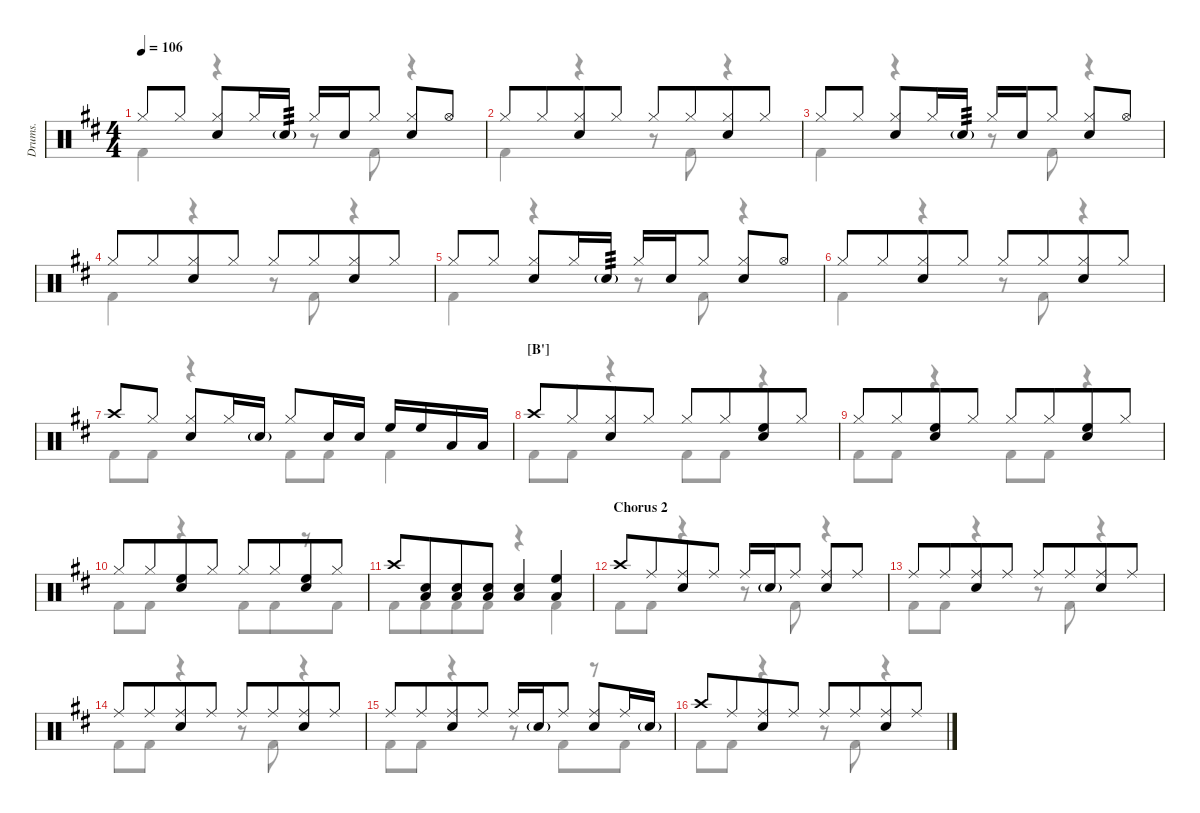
\defaultSystemsLayout 4
\hideDynamics
\track ("Drumkit" "Drums.") {defaultSystemsLayout 4 instrument percussion}
\staff {score}
\articulation defaults
\voice
\ts (4 4)
\tempo 106
\clef neutral
\ks d "Hi-Hat (closed)"{acc forcenatural}.8{dy mf} "Hi-Hat (closed)"{acc forcenatural}.8
("Hi-Hat (closed)"{acc forcenatural} "Snare (hit) 2"{acc forcenatural}).8 "Hi-Hat (closed)"{acc forcenatural}.16 "Snare (hit) 2"{g acc forcenatural}.16{tp 3} "Hi-Hat (closed)"{acc forcenatural}.16 "Snare (hit) 2"{acc forcenatural}.16 "Hi-Hat (closed)"{acc forcenatural}.8{beam split} ("Hi-Hat (closed)"{acc forcenatural} "Snare (hit) 2"{acc forcenatural}).8 "Hi-Hat (open)"{acc forcenatural}.8 |
"Hi-Hat (closed)"{acc forcenatural}.8 "Hi-Hat (closed)"{acc forcenatural}.8{beam merge} ("Hi-Hat (closed)"{acc forcenatural} "Snare (hit) 2"{acc forcenatural}).8 "Hi-Hat (closed)"{acc forcenatural}.8 "Hi-Hat (closed)"{acc forcenatural}.8 "Hi-Hat (closed)"{acc forcenatural}.8{beam merge} ("Hi-Hat (closed)"{acc forcenatural} "Snare (hit) 2"{acc forcenatural}).8 "Hi-Hat (closed)"{acc forcenatural}.8 |
"Hi-Hat (closed)"{acc forcenatural}.8 "Hi-Hat (closed)"{acc forcenatural}.8 ("Hi-Hat (closed)"{acc forcenatural} "Snare (hit) 2"{acc forcenatural}).8 "Hi-Hat (closed)"{acc forcenatural}.16 "Snare (hit) 2"{g acc forcenatural}.16{tp 3} "Hi-Hat (closed)"{acc forcenatural}.16 "Snare (hit) 2"{acc forcenatural}.16 "Hi-Hat (closed)"{acc forcenatural}.8{beam split} ("Hi-Hat (closed)"{acc forcenatural} "Snare (hit) 2"{acc forcenatural}).8 "Hi-Hat (open)"{acc forcenatural}.8 |
"Hi-Hat (closed)"{acc forcenatural}.8 "Hi-Hat (closed)"{acc forcenatural}.8{beam merge} ("Hi-Hat (closed)"{acc forcenatural} "Snare (hit) 2"{acc forcenatural}).8 "Hi-Hat (closed)"{acc forcenatural}.8 "Hi-Hat (closed)"{acc forcenatural}.8 "Hi-Hat (closed)"{acc forcenatural}.8{beam merge} ("Hi-Hat (closed)"{acc forcenatural} "Snare (hit) 2"{acc forcenatural}).8 "Hi-Hat (closed)"{acc forcenatural}.8 |
"Hi-Hat (closed)"{acc forcenatural}.8 "Hi-Hat (closed)"{acc forcenatural}.8 ("Hi-Hat (closed)"{acc forcenatural} "Snare (hit) 2"{acc forcenatural}).8 "Hi-Hat (closed)"{acc forcenatural}.16 "Snare (hit) 2"{g acc forcenatural}.16{tp 3} "Hi-Hat (closed)"{acc forcenatural}.16 "Snare (hit) 2"{acc forcenatural}.16 "Hi-Hat (closed)"{acc forcenatural}.8{beam split} ("Hi-Hat (closed)"{acc forcenatural} "Snare (hit) 2"{acc forcenatural}).8 "Hi-Hat (open)"{acc forcenatural}.8 |
"Hi-Hat (closed)"{acc forcenatural}.8 "Hi-Hat (closed)"{acc forcenatural}.8{beam merge} ("Hi-Hat (closed)"{acc forcenatural} "Snare (hit) 2"{acc forcenatural}).8 "Hi-Hat (closed)"{acc forcenatural}.8 "Hi-Hat (closed)"{acc forcenatural}.8 "Hi-Hat (closed)"{acc forcenatural}.8{beam merge} ("Hi-Hat (closed)"{acc forcenatural} "Snare (hit) 2"{acc forcenatural}).8 "Hi-Hat (closed)"{acc forcenatural}.8 |
"Crash high (hit)"{acc forcenatural}.8 "Hi-Hat (closed)"{acc forcenatural}.8 ("Hi-Hat (closed)"{acc forcenatural} "Snare (hit) 2"{acc forcenatural}).8 "Hi-Hat (closed)"{acc forcenatural}.16 "Snare (hit) 2"{g acc forcenatural}.16 "Hi-Hat (closed)"{acc forcenatural}.8 "Snare (hit) 2"{acc forcenatural}.16 "Snare (hit) 2"{acc forcenatural}.16 "High Floor Tom (hit)"{acc forcenatural}.16 "High Floor Tom (hit)"{acc forcenatural}.16 "Low Tom (hit)"{acc forcenatural}.16 "Low Tom (hit)"{acc forcenatural}.16 |
\section ("B'" "")
"Crash high (hit)"{acc forcenatural}.8 "Hi-Hat (closed)"{acc forcenatural}.8{beam merge} ("Hi-Hat (closed)"{acc forcenatural} "Snare (hit) 2"{acc forcenatural}).8 "Hi-Hat (closed)"{acc forcenatural}.8 "Hi-Hat (closed)"{acc forcenatural}.8 "Hi-Hat (closed)"{acc forcenatural}.8{beam merge} ("Snare (hit) 2"{acc forcenatural} "High Floor Tom (hit)"{acc forcenatural}).8 "Hi-Hat (closed)"{acc forcenatural}.8 |
"Hi-Hat (closed)"{acc forcenatural}.8 "Hi-Hat (closed)"{acc forcenatural}.8{beam merge} ("Snare (hit) 2"{acc forcenatural} "High Floor Tom (hit)"{acc forcenatural}).8 "Hi-Hat (closed)"{acc forcenatural}.8 "Hi-Hat (closed)"{acc forcenatural}.8 "Hi-Hat (closed)"{acc forcenatural}.8{beam merge} ("Snare (hit) 2"{acc forcenatural} "High Floor Tom (hit)"{acc forcenatural}).8 "Hi-Hat (closed)"{acc forcenatural}.8 |
"Hi-Hat (closed)"{acc forcenatural}.8 "Hi-Hat (closed)"{acc forcenatural}.8{beam merge} ("Snare (hit) 2"{acc forcenatural} "High Floor Tom (hit)"{acc forcenatural}).8 "Hi-Hat (closed)"{acc forcenatural}.8 "Hi-Hat (closed)"{acc forcenatural}.8 "Hi-Hat (closed)"{acc forcenatural}.8{beam merge} ("Snare (hit) 2"{acc forcenatural} "High Floor Tom (hit)"{acc forcenatural}).8 "Hi-Hat (closed)"{acc forcenatural}.8 |
"Crash high (hit)"{acc forcenatural}.8 ("Snare (hit) 2"{acc forcenatural} "Low Tom (hit)"{acc forcenatural}).8{beam merge} ("Snare (hit) 2"{acc forcenatural} "Low Tom (hit)"{acc forcenatural}).8{beam merge} ("Snare (hit) 2"{acc forcenatural} "Low Tom (hit)"{acc forcenatural}).8 ("Snare (hit) 2"{acc forcenatural} "Low Tom (hit)"{acc forcenatural}).4{beam merge} ("Low Tom (hit)"{acc forcenatural} "High Floor Tom (hit)"{acc forcenatural}).4 |
\section ("" "Chorus 2")
"Crash high (hit)"{acc forcenatural}.8{beam merge} "Ride (middle)"{acc forcenatural}.8{beam merge} ("Ride (middle)"{acc forcenatural} "Snare (hit) 2"{acc forcenatural}).8 "Ride (middle)"{acc forcenatural}.8 "Ride (middle)"{acc forcenatural}.16{beam merge} "Snare (hit) 2"{g acc forcenatural}.16 "Ride (middle)"{acc forcenatural}.8{beam split} ("Ride (middle)"{acc forcenatural} "Snare (hit) 2"{acc forcenatural}).8 "Ride (middle)"{acc forcenatural}.8 |
"Ride (middle)"{acc forcenatural}.8{beam merge} "Ride (middle)"{acc forcenatural}.8{beam merge} ("Ride (middle)"{acc forcenatural} "Snare (hit) 2"{acc forcenatural}).8 "Ride (middle)"{acc forcenatural}.8 "Ride (middle)"{acc forcenatural}.8{beam merge} "Ride (middle)"{acc forcenatural}.8{beam merge} ("Ride (middle)"{acc forcenatural} "Snare (hit) 2"{acc forcenatural}).8 "Ride (middle)"{acc forcenatural}.8 |
"Ride (middle)"{acc forcenatural}.8{beam merge} "Ride (middle)"{acc forcenatural}.8{beam merge} ("Ride (middle)"{acc forcenatural} "Snare (hit) 2"{acc forcenatural}).8 "Ride (middle)"{acc forcenatural}.8 "Ride (middle)"{acc forcenatural}.8{beam merge} "Ride (middle)"{acc forcenatural}.8{beam merge} ("Ride (middle)"{acc forcenatural} "Snare (hit) 2"{acc forcenatural}).8 "Ride (middle)"{acc forcenatural}.8 |
"Ride (middle)"{acc forcenatural}.8{beam merge} "Ride (middle)"{acc forcenatural}.8{beam merge} ("Ride (middle)"{acc forcenatural} "Snare (hit) 2"{acc forcenatural}).8 "Ride (middle)"{acc forcenatural}.8 "Ride (middle)"{acc forcenatural}.16{beam merge} "Snare (hit) 2"{g acc forcenatural}.16 "Ride (middle)"{acc forcenatural}.8{beam split} ("Ride (middle)"{acc forcenatural} "Snare (hit) 2"{acc forcenatural}).8 "Ride (middle)"{acc forcenatural}.16 "Snare (hit) 2"{g acc forcenatural}.16 |
"Crash high (hit)"{acc forcenatural}.8{beam merge} "Ride (middle)"{acc forcenatural}.8{beam merge} ("Ride (middle)"{acc forcenatural} "Snare (hit) 2"{acc forcenatural}).8 "Ride (middle)"{acc forcenatural}.8 "Ride (middle)"{acc forcenatural}.8{beam merge} "Ride (middle)"{acc forcenatural}.8{beam merge} ("Ride (middle)"{acc forcenatural} "Snare (hit) 2"{acc forcenatural}).8 "Ride (middle)"{acc forcenatural}.8
\voice
\clef neutral
\ottava regular
\simile none
\ks d "Kick (hit) 2"{acc forcenatural}.4{dy mf}
r.4 r.8 "Kick (hit) 2"{acc forcenatural}.8 r.4 |
"Kick (hit) 2"{acc forcenatural}.4 r.4 r.8 "Kick (hit) 2"{acc forcenatural}.8 r.4 |
"Kick (hit) 2"{acc forcenatural}.4 r.4 r.8 "Kick (hit) 2"{acc forcenatural}.8 r.4 |
"Kick (hit) 2"{acc forcenatural}.4 r.4 r.8 "Kick (hit) 2"{acc forcenatural}.8 r.4 |
"Kick (hit) 2"{acc forcenatural}.4 r.4 r.8 "Kick (hit) 2"{acc forcenatural}.8 r.4 |
"Kick (hit) 2"{acc forcenatural}.4 r.4 r.8 "Kick (hit) 2"{acc forcenatural}.8 r.4 |
"Kick (hit) 2"{acc forcenatural}.8 "Kick (hit) 2"{acc forcenatural}.8 r.4 "Kick (hit) 2"{acc forcenatural}.8 "Kick (hit) 2"{acc forcenatural}.8 "Kick (hit) 2"{acc forcenatural}.4 |
"Kick (hit) 2"{acc forcenatural}.8 "Kick (hit) 2"{acc forcenatural}.8 r.4 "Kick (hit) 2"{acc forcenatural}.8 "Kick (hit) 2"{acc forcenatural}.8 r.4 |
"Kick (hit) 2"{acc forcenatural}.8 "Kick (hit) 2"{acc forcenatural}.8 r.4 "Kick (hit) 2"{acc forcenatural}.8 "Kick (hit) 2"{acc forcenatural}.8 r.4 |
"Kick (hit) 2"{acc forcenatural}.8 "Kick (hit) 2"{acc forcenatural}.8 r.4 "Kick (hit) 2"{acc forcenatural}.8 "Kick (hit) 2"{acc forcenatural}.8{beam merge} r.8{beam merge} "Kick (hit) 2"{acc forcenatural}.8 |
"Kick (hit) 2"{acc forcenatural}.8 "Kick (hit) 2"{acc forcenatural}.8{beam merge} "Kick (hit) 2"{acc forcenatural}.8{beam merge} "Kick (hit) 2"{acc forcenatural}.8 r.4 "Kick (hit) 2"{acc forcenatural}.4 |
"Kick (hit) 2"{acc forcenatural}.8 "Kick (hit) 2"{acc forcenatural}.8 r.4 r.8 "Kick (hit) 2"{acc forcenatural}.8{beam merge} r.4{beam merge} |
"Kick (hit) 2"{acc forcenatural}.8 "Kick (hit) 2"{acc forcenatural}.8 r.4 r.8 "Kick (hit) 2"{acc forcenatural}.8{beam merge} r.4{beam merge} |
"Kick (hit) 2"{acc forcenatural}.8 "Kick (hit) 2"{acc forcenatural}.8 r.4 r.8 "Kick (hit) 2"{acc forcenatural}.8{beam merge} r.4{beam merge} |
"Kick (hit) 2"{acc forcenatural}.8 "Kick (hit) 2"{acc forcenatural}.8 r.4 r.8 "Kick (hit) 2"{acc forcenatural}.8{beam merge} r.8{beam merge} "Kick (hit) 2"{acc forcenatural}.8 |
"Kick (hit) 2"{acc forcenatural}.8 "Kick (hit) 2"{acc forcenatural}.8 r.4 r.8 "Kick (hit) 2"{acc forcenatural}.8{beam merge} r.4{beam merge}
